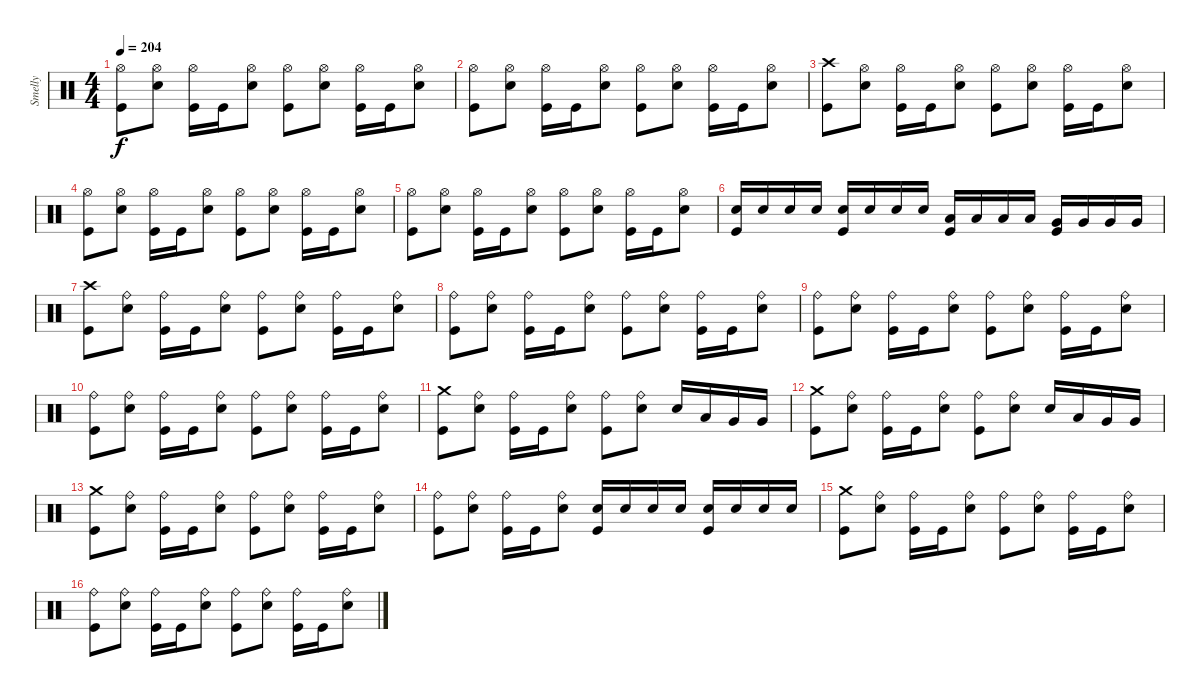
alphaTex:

\track ("Smelly" "Smelly") {instrument percussion}
\staff {score}
\articulation defaults
\ts (4 4)
\tempo 204
\clef neutral
\ks c
("Hi-Hat (open)" "Kick (hit)").8{dy f} ("Hi-Hat (open)" "Snare (hit) 2").8 ("Hi-Hat (open)" "Kick (hit)").16 "Kick (hit)".16 ("Hi-Hat (open)" "Snare (hit) 2").8 ("Hi-Hat (open)" "Kick (hit)").8 ("Hi-Hat (open)" "Snare (hit) 2").8 ("Hi-Hat (open)" "Kick (hit)").16 "Kick (hit)".16 ("Hi-Hat (open)" "Snare (hit) 2").8 |
("Hi-Hat (open)" "Kick (hit)").8 ("Hi-Hat (open)" "Snare (hit) 2").8 ("Hi-Hat (open)" "Kick (hit)").16 "Kick (hit)".16 ("Hi-Hat (open)" "Snare (hit) 2").8 ("Hi-Hat (open)" "Kick (hit)").8 ("Hi-Hat (open)" "Snare (hit) 2").8 ("Hi-Hat (open)" "Kick (hit)").16 "Kick (hit)".16 ("Hi-Hat (open)" "Snare (hit) 2").8 |
("Crash high (hit)" "Kick (hit)").8 ("Hi-Hat (open)" "Snare (hit) 2").8 ("Hi-Hat (open)" "Kick (hit)").16 "Kick (hit)".16 ("Hi-Hat (open)" "Snare (hit) 2").8 ("Hi-Hat (open)" "Kick (hit)").8 ("Hi-Hat (open)" "Snare (hit) 2").8 ("Hi-Hat (open)" "Kick (hit)").16 "Kick (hit)".16 ("Hi-Hat (open)" "Snare (hit) 2").8 |
("Hi-Hat (open)" "Kick (hit)").8 ("Hi-Hat (open)" "Snare (hit) 2").8 ("Hi-Hat (open)" "Kick (hit)").16 "Kick (hit)".16 ("Hi-Hat (open)" "Snare (hit) 2").8 ("Hi-Hat (open)" "Kick (hit)").8 ("Hi-Hat (open)" "Snare (hit) 2").8 ("Hi-Hat (open)" "Kick (hit)").16 "Kick (hit)".16 ("Hi-Hat (open)" "Snare (hit) 2").8 |
("Hi-Hat (open)" "Kick (hit)").8 ("Hi-Hat (open)" "Snare (hit) 2").8 ("Hi-Hat (open)" "Kick (hit)").16 "Kick (hit)".16 ("Hi-Hat (open)" "Snare (hit) 2").8 ("Hi-Hat (open)" "Kick (hit)").8 ("Hi-Hat (open)" "Snare (hit) 2").8 ("Hi-Hat (open)" "Kick (hit)").16 "Kick (hit)".16 ("Hi-Hat (open)" "Snare (hit) 2").8 |
("Snare (hit) 2" "Kick (hit)").16 "Snare (hit) 2".16 "Snare (hit) 2".16 "Snare (hit) 2".16 ("Snare (hit) 2" "Kick (hit)").16 "Snare (hit) 2".16 "Snare (hit) 2".16 "Snare (hit) 2".16 ("Low Tom (hit)" "Kick (hit)").16 "Low Tom (hit)".16 "Low Tom (hit)".16 "Low Tom (hit)".16 ("Very Low Tom (hit)" "Kick (hit)").16 "Very Low Tom (hit)".16 "Very Low Tom (hit)".16 "Very Low Tom (hit)".16 |
("Crash high (hit)" "Kick (hit)").8 ("Ride (bell)" "Snare (hit) 2").8 ("Ride (bell)" "Kick (hit)").16 "Kick (hit)".16 ("Ride (bell)" "Snare (hit) 2").8 ("Ride (bell)" "Kick (hit)").8 ("Ride (bell)" "Snare (hit) 2").8 ("Ride (bell)" "Kick (hit)").16 "Kick (hit)".16 ("Ride (bell)" "Snare (hit) 2").8 |
("Ride (bell)" "Kick (hit)").8 ("Ride (bell)" "Snare (hit) 2").8 ("Ride (bell)" "Kick (hit)").16 "Kick (hit)".16 ("Ride (bell)" "Snare (hit) 2").8 ("Ride (bell)" "Kick (hit)").8 ("Ride (bell)" "Snare (hit) 2").8 ("Ride (bell)" "Kick (hit)").16 "Kick (hit)".16 ("Ride (bell)" "Snare (hit) 2").8 |
("Ride (bell)" "Kick (hit)").8 ("Ride (bell)" "Snare (hit) 2").8 ("Ride (bell)" "Kick (hit)").16 "Kick (hit)".16 ("Ride (bell)" "Snare (hit) 2").8 ("Ride (bell)" "Kick (hit)").8 ("Ride (bell)" "Snare (hit) 2").8 ("Ride (bell)" "Kick (hit)").16 "Kick (hit)".16 ("Ride (bell)" "Snare (hit) 2").8 |
("Ride (bell)" "Kick (hit)").8 ("Ride (bell)" "Snare (hit) 2").8 ("Ride (bell)" "Kick (hit)").16 "Kick (hit)".16 ("Ride (bell)" "Snare (hit) 2").8 ("Ride (bell)" "Kick (hit)").8 ("Ride (bell)" "Snare (hit) 2").8 ("Ride (bell)" "Kick (hit)").16 "Kick (hit)".16 ("Ride (bell)" "Snare (hit) 2").8 |
("Crash medium (hit)" "Kick (hit)").8 ("Ride (bell)" "Snare (hit) 2").8 ("Ride (bell)" "Kick (hit)").16 "Kick (hit)".16 ("Ride (bell)" "Snare (hit) 2").8 ("Ride (bell)" "Kick (hit)").8 ("Ride (bell)" "Snare (hit) 2").8 "Snare (hit) 2".16 "Low Tom (hit)".16 "Very Low Tom (hit)".16 "Very Low Tom (hit)".16 |
("Crash medium (hit)" "Kick (hit)").8 ("Ride (bell)" "Snare (hit) 2").8 ("Ride (bell)" "Kick (hit)").16 "Kick (hit)".16 ("Ride (bell)" "Snare (hit) 2").8 ("Ride (bell)" "Kick (hit)").8 ("Ride (bell)" "Snare (hit) 2").8 "Snare (hit) 2".16 "Low Tom (hit)".16 "Very Low Tom (hit)".16 "Very Low Tom (hit)".16 |
("Crash medium (hit)" "Kick (hit)").8 ("Ride (bell)" "Snare (hit) 2").8 ("Ride (bell)" "Kick (hit)").16 "Kick (hit)".16 ("Ride (bell)" "Snare (hit) 2").8 ("Ride (bell)" "Kick (hit)").8 ("Ride (bell)" "Snare (hit) 2").8 ("Ride (bell)" "Kick (hit)").16 "Kick (hit)".16 ("Ride (bell)" "Snare (hit) 2").8 |
("Ride (bell)" "Kick (hit)").8 ("Ride (bell)" "Snare (hit) 2").8 ("Ride (bell)" "Kick (hit)").16 "Kick (hit)".16 ("Ride (bell)" "Snare (hit) 2").8 ("Snare (hit) 2" "Kick (hit)").16 "Snare (hit) 2".16 "Snare (hit) 2".16 "Snare (hit) 2".16 ("Snare (hit) 2" "Kick (hit)").16 "Snare (hit) 2".16 "Snare (hit) 2".16 "Snare (hit) 2".16 |
("Crash medium (hit)" "Kick (hit)").8 ("Ride (bell)" "Snare (hit) 2").8 ("Ride (bell)" "Kick (hit)").16 "Kick (hit)".16 ("Ride (bell)" "Snare (hit) 2").8 ("Ride (bell)" "Kick (hit)").8 ("Ride (bell)" "Snare (hit) 2").8 ("Ride (bell)" "Kick (hit)").16 "Kick (hit)".16 ("Ride (bell)" "Snare (hit) 2").8 |
("Ride (bell)" "Kick (hit)").8 ("Ride (bell)" "Snare (hit) 2").8 ("Ride (bell)" "Kick (hit)").16 "Kick (hit)".16 ("Ride (bell)" "Snare (hit) 2").8 ("Ride (bell)" "Kick (hit)").8 ("Ride (bell)" "Snare (hit) 2").8 ("Ride (bell)" "Kick (hit)").16 "Kick (hit)".16 ("Ride (bell)" "Snare (hit) 2").8
